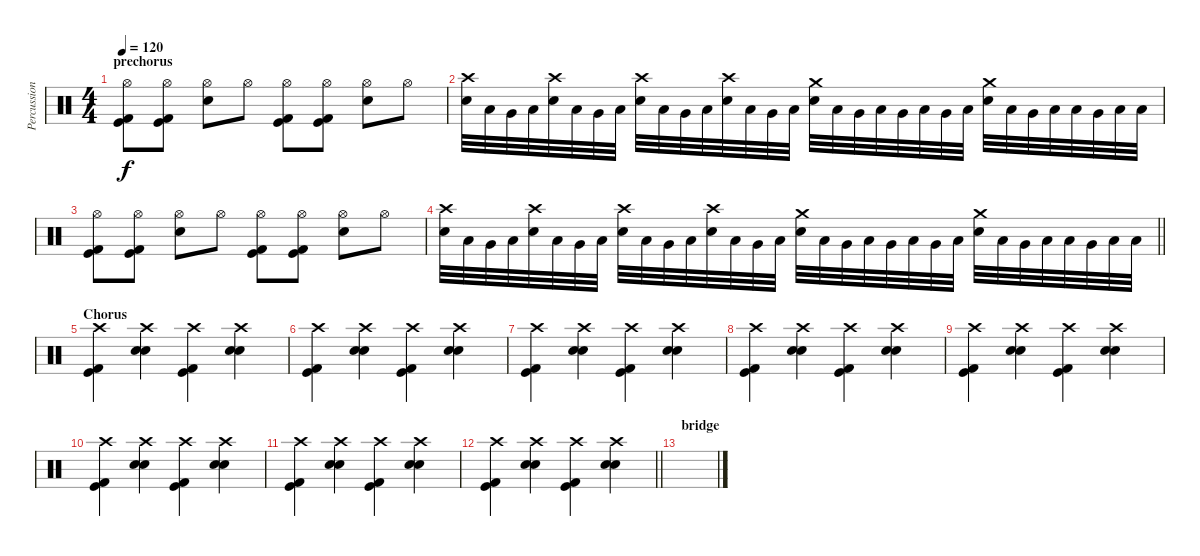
\track ("Percussion" "Percussion") {instrument percussion}
\staff {score}
\articulation defaults
\ts (4 4)
\section ("" "prechorus")
\tempo 120
\clef neutral
\ks c
("Hi-Hat (open)" "Kick (hit) 2" "Kick (hit)").8{dy f} ("Hi-Hat (open)" "Kick (hit) 2" "Kick (hit)").8 ("Hi-Hat (open)" "Electric Snare (hit)").8 "Hi-Hat (open)".8 ("Hi-Hat (open)" "Kick (hit) 2" "Kick (hit)").8 ("Hi-Hat (open)" "Kick (hit) 2" "Kick (hit)").8 ("Hi-Hat (open)" "Electric Snare (hit)").8 "Hi-Hat (open)".8 |
("Crash high (hit)" "Electric Snare (hit)").32 "Low Tom (hit)".32 "Very Low Tom (hit)".32 "Low Floor Tom (hit)".32 ("Crash high (hit)" "Electric Snare (hit)").32 "Low Tom (hit)".32 "Very Low Tom (hit)".32 "Low Floor Tom (hit)".32 ("Crash high (hit)" "Electric Snare (hit)").32 "Low Tom (hit)".32 "Very Low Tom (hit)".32 "Low Floor Tom (hit)".32 ("Crash high (hit)" "Electric Snare (hit)").32 "Low Tom (hit)".32 "Very Low Tom (hit)".32 "Low Floor Tom (hit)".32 ("Crash medium (hit)" "Electric Snare (hit)").32 "Low Tom (hit)".32 "Very Low Tom (hit)".32 "Low Tom (hit)".32 "Very Low Tom (hit)".32 "Low Floor Tom (hit)".32 "Very Low Tom (hit)".32 "Low Tom (hit)".32 ("Crash medium (hit)" "Electric Snare (hit)").32 "Low Tom (hit)".32 "Very Low Tom (hit)".32 "Low Tom (hit)".32 "Low Floor Tom (hit)".32 "Very Low Tom (hit)".32 "Low Tom (hit)".32 "Low Floor Tom (hit)".32 |
("Hi-Hat (open)" "Kick (hit) 2" "Kick (hit)").8 ("Hi-Hat (open)" "Kick (hit) 2" "Kick (hit)").8 ("Hi-Hat (open)" "Electric Snare (hit)").8 "Hi-Hat (open)".8 ("Hi-Hat (open)" "Kick (hit) 2" "Kick (hit)").8 ("Hi-Hat (open)" "Kick (hit) 2" "Kick (hit)").8 ("Hi-Hat (open)" "Electric Snare (hit)").8 "Hi-Hat (open)".8 |
\barLineRight lightlight
("Crash high (hit)" "Electric Snare (hit)").32 "Low Tom (hit)".32 "Very Low Tom (hit)".32 "Low Floor Tom (hit)".32 ("Crash high (hit)" "Electric Snare (hit)").32 "Low Tom (hit)".32 "Very Low Tom (hit)".32 "Low Floor Tom (hit)".32 ("Crash high (hit)" "Electric Snare (hit)").32 "Low Tom (hit)".32 "Very Low Tom (hit)".32 "Low Floor Tom (hit)".32 ("Crash high (hit)" "Electric Snare (hit)").32 "Low Tom (hit)".32 "Very Low Tom (hit)".32 "Low Floor Tom (hit)".32 ("Crash medium (hit)" "Electric Snare (hit)").32 "Low Tom (hit)".32 "Very Low Tom (hit)".32 "Low Tom (hit)".32 "Very Low Tom (hit)".32 "Low Floor Tom (hit)".32 "Very Low Tom (hit)".32 "Low Tom (hit)".32 ("Crash medium (hit)" "Electric Snare (hit)").32 "Low Tom (hit)".32 "Very Low Tom (hit)".32 "Low Tom (hit)".32 "Low Floor Tom (hit)".32 "Very Low Tom (hit)".32 "Low Tom (hit)".32 "Low Floor Tom (hit)".32 |
\section ("" "Chorus")
("Crash high (hit)" "Kick (hit) 2" "Kick (hit)").4 ("Crash high (hit)" "Electric Snare (hit)" "Electric Snare (hit)").4 ("Crash high (hit)" "Kick (hit) 2" "Kick (hit)").4 ("Crash high (hit)" "Electric Snare (hit)" "Electric Snare (hit)").4 |
("Crash high (hit)" "Kick (hit) 2" "Kick (hit)").4 ("Crash high (hit)" "Electric Snare (hit)" "Electric Snare (hit)").4 ("Crash high (hit)" "Kick (hit) 2" "Kick (hit)").4 ("Crash high (hit)" "Electric Snare (hit)" "Electric Snare (hit)").4 |
("Crash high (hit)" "Kick (hit) 2" "Kick (hit)").4 ("Crash high (hit)" "Electric Snare (hit)" "Electric Snare (hit)").4 ("Crash high (hit)" "Kick (hit) 2" "Kick (hit)").4 ("Crash high (hit)" "Electric Snare (hit)" "Electric Snare (hit)").4 |
("Crash high (hit)" "Kick (hit) 2" "Kick (hit)").4 ("Crash high (hit)" "Electric Snare (hit)" "Electric Snare (hit)").4 ("Crash high (hit)" "Kick (hit) 2" "Kick (hit)").4 ("Crash high (hit)" "Electric Snare (hit)" "Electric Snare (hit)").4 |
("Crash high (hit)" "Kick (hit) 2" "Kick (hit)").4 ("Crash high (hit)" "Electric Snare (hit)" "Electric Snare (hit)").4 ("Crash high (hit)" "Kick (hit) 2" "Kick (hit)").4 ("Crash high (hit)" "Electric Snare (hit)" "Electric Snare (hit)").4 |
("Crash high (hit)" "Kick (hit) 2" "Kick (hit)").4 ("Crash high (hit)" "Electric Snare (hit)" "Electric Snare (hit)").4 ("Crash high (hit)" "Kick (hit) 2" "Kick (hit)").4 ("Crash high (hit)" "Electric Snare (hit)" "Electric Snare (hit)").4 |
("Crash high (hit)" "Kick (hit) 2" "Kick (hit)").4 ("Crash high (hit)" "Electric Snare (hit)" "Electric Snare (hit)").4 ("Crash high (hit)" "Kick (hit) 2" "Kick (hit)").4 ("Crash high (hit)" "Electric Snare (hit)" "Electric Snare (hit)").4 |
\barLineRight lightlight
("Crash high (hit)" "Kick (hit) 2" "Kick (hit)").4 ("Crash high (hit)" "Electric Snare (hit)" "Electric Snare (hit)").4 ("Crash high (hit)" "Kick (hit) 2" "Kick (hit)").4 ("Crash high (hit)" "Electric Snare (hit)" "Electric Snare (hit)").4 |
\section ("" "bridge")
